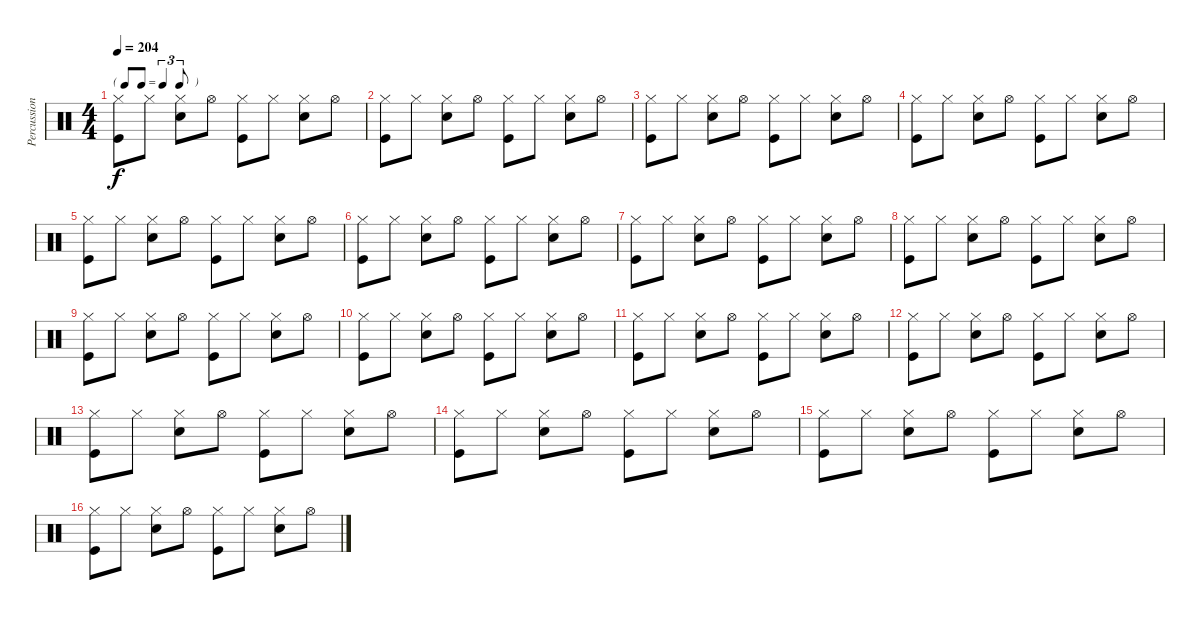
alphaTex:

\track ("Percussions" "Percussion") {instrument percussion}
\staff {score}
\articulation defaults
\ts (4 4)
\tf triplet8th
\tempo 204
\clef neutral
\ks c
("Hi-Hat (closed)" "Kick (hit)").8{dy f} "Hi-Hat (closed)".8 ("Hi-Hat (closed)" "Snare (hit) 2").8 "Hi-Hat (open)".8 ("Hi-Hat (closed)" "Kick (hit)").8 "Hi-Hat (closed)".8 ("Hi-Hat (closed)" "Snare (hit) 2").8 "Hi-Hat (open)".8 |
("Hi-Hat (closed)" "Kick (hit)").8 "Hi-Hat (closed)".8 ("Hi-Hat (closed)" "Snare (hit) 2").8 "Hi-Hat (open)".8 ("Hi-Hat (closed)" "Kick (hit)").8 "Hi-Hat (closed)".8 ("Hi-Hat (closed)" "Snare (hit) 2").8 "Hi-Hat (open)".8 |
("Hi-Hat (closed)" "Kick (hit)").8 "Hi-Hat (closed)".8 ("Hi-Hat (closed)" "Snare (hit) 2").8 "Hi-Hat (open)".8 ("Hi-Hat (closed)" "Kick (hit)").8 "Hi-Hat (closed)".8 ("Hi-Hat (closed)" "Snare (hit) 2").8 "Hi-Hat (open)".8 |
("Hi-Hat (closed)" "Kick (hit)").8 "Hi-Hat (closed)".8 ("Hi-Hat (closed)" "Snare (hit) 2").8 "Hi-Hat (open)".8 ("Hi-Hat (closed)" "Kick (hit)").8 "Hi-Hat (closed)".8 ("Hi-Hat (closed)" "Snare (hit) 2").8 "Hi-Hat (open)".8 |
("Hi-Hat (closed)" "Kick (hit)").8 "Hi-Hat (closed)".8 ("Hi-Hat (closed)" "Snare (hit) 2").8 "Hi-Hat (open)".8 ("Hi-Hat (closed)" "Kick (hit)").8 "Hi-Hat (closed)".8 ("Hi-Hat (closed)" "Snare (hit) 2").8 "Hi-Hat (open)".8 |
("Hi-Hat (closed)" "Kick (hit)").8 "Hi-Hat (closed)".8 ("Hi-Hat (closed)" "Snare (hit) 2").8 "Hi-Hat (open)".8 ("Hi-Hat (closed)" "Kick (hit)").8 "Hi-Hat (closed)".8 ("Hi-Hat (closed)" "Snare (hit) 2").8 "Hi-Hat (open)".8 |
("Hi-Hat (closed)" "Kick (hit)").8 "Hi-Hat (closed)".8 ("Hi-Hat (closed)" "Snare (hit) 2").8 "Hi-Hat (open)".8 ("Hi-Hat (closed)" "Kick (hit)").8 "Hi-Hat (closed)".8 ("Hi-Hat (closed)" "Snare (hit) 2").8 "Hi-Hat (open)".8 |
("Hi-Hat (closed)" "Kick (hit)").8 "Hi-Hat (closed)".8 ("Hi-Hat (closed)" "Snare (hit) 2").8 "Hi-Hat (open)".8 ("Hi-Hat (closed)" "Kick (hit)").8 "Hi-Hat (closed)".8 ("Hi-Hat (closed)" "Snare (hit) 2").8 "Hi-Hat (open)".8 |
("Hi-Hat (closed)" "Kick (hit)").8 "Hi-Hat (closed)".8 ("Hi-Hat (closed)" "Snare (hit) 2").8 "Hi-Hat (open)".8 ("Hi-Hat (closed)" "Kick (hit)").8 "Hi-Hat (closed)".8 ("Hi-Hat (closed)" "Snare (hit) 2").8 "Hi-Hat (open)".8 |
("Hi-Hat (closed)" "Kick (hit)").8 "Hi-Hat (closed)".8 ("Hi-Hat (closed)" "Snare (hit) 2").8 "Hi-Hat (open)".8 ("Hi-Hat (closed)" "Kick (hit)").8 "Hi-Hat (closed)".8 ("Hi-Hat (closed)" "Snare (hit) 2").8 "Hi-Hat (open)".8 |
("Hi-Hat (closed)" "Kick (hit)").8 "Hi-Hat (closed)".8 ("Hi-Hat (closed)" "Snare (hit) 2").8 "Hi-Hat (open)".8 ("Hi-Hat (closed)" "Kick (hit)").8 "Hi-Hat (closed)".8 ("Hi-Hat (closed)" "Snare (hit) 2").8 "Hi-Hat (open)".8 |
("Hi-Hat (closed)" "Kick (hit)").8 "Hi-Hat (closed)".8 ("Hi-Hat (closed)" "Snare (hit) 2").8 "Hi-Hat (open)".8 ("Hi-Hat (closed)" "Kick (hit)").8 "Hi-Hat (closed)".8 ("Hi-Hat (closed)" "Snare (hit) 2").8 "Hi-Hat (open)".8 |
("Hi-Hat (closed)" "Kick (hit)").8 "Hi-Hat (closed)".8 ("Hi-Hat (closed)" "Snare (hit) 2").8 "Hi-Hat (open)".8 ("Hi-Hat (closed)" "Kick (hit)").8 "Hi-Hat (closed)".8 ("Hi-Hat (closed)" "Snare (hit) 2").8 "Hi-Hat (open)".8 |
("Hi-Hat (closed)" "Kick (hit)").8 "Hi-Hat (closed)".8 ("Hi-Hat (closed)" "Snare (hit) 2").8 "Hi-Hat (open)".8 ("Hi-Hat (closed)" "Kick (hit)").8 "Hi-Hat (closed)".8 ("Hi-Hat (closed)" "Snare (hit) 2").8 "Hi-Hat (open)".8 |
("Hi-Hat (closed)" "Kick (hit)").8 "Hi-Hat (closed)".8 ("Hi-Hat (closed)" "Snare (hit) 2").8 "Hi-Hat (open)".8 ("Hi-Hat (closed)" "Kick (hit)").8 "Hi-Hat (closed)".8 ("Hi-Hat (closed)" "Snare (hit) 2").8 "Hi-Hat (open)".8 |
("Hi-Hat (closed)" "Kick (hit)").8 "Hi-Hat (closed)".8 ("Hi-Hat (closed)" "Snare (hit) 2").8 "Hi-Hat (open)".8 ("Hi-Hat (closed)" "Kick (hit)").8 "Hi-Hat (closed)".8 ("Hi-Hat (closed)" "Snare (hit) 2").8 "Hi-Hat (open)".8
